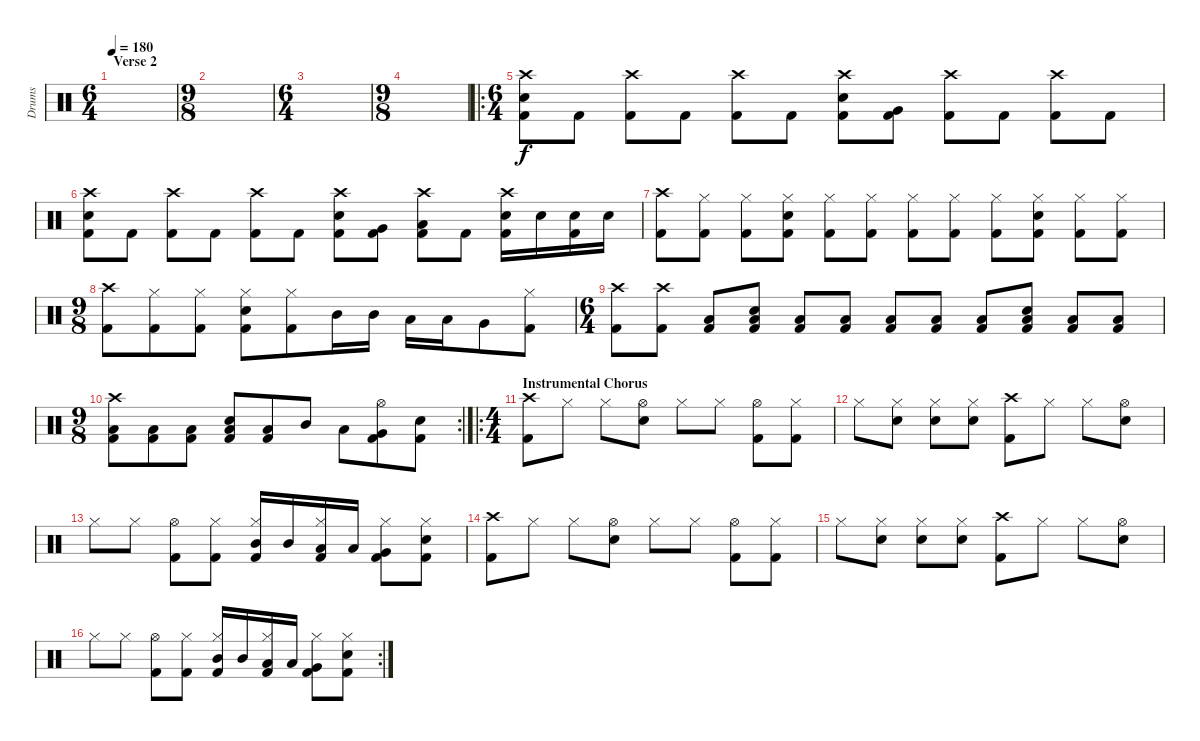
\track ("Drums" "Drums") {instrument percussion}
\staff {score}
\articulation defaults
\ts (6 4)
\section ("" "Verse 2")
\tempo 180
\clef neutral
\ks c
|
\ts (9 8)
|
\ts (6 4)
|
\ts (9 8)
|
\ro
\ts (6 4)
("Crash high (hit)" "Snare (hit) 2" "Kick (hit) 2").8 "Kick (hit) 2".8 ("Crash high (hit)" "Kick (hit) 2").8 "Kick (hit) 2".8 ("Crash high (hit)" "Kick (hit) 2").8 "Kick (hit) 2".8 ("Crash high (hit)" "Snare (hit) 2" "Kick (hit) 2").8 ("Very Low Tom (hit)" "Kick (hit) 2").8 ("Crash high (hit)" "Kick (hit) 2").8 "Kick (hit) 2".8 ("Crash high (hit)" "Kick (hit) 2").8 "Kick (hit) 2".8 |
("Crash high (hit)" "Snare (hit) 2" "Kick (hit) 2").8 "Kick (hit) 2".8 ("Crash high (hit)" "Kick (hit) 2").8 "Kick (hit) 2".8 ("Crash high (hit)" "Kick (hit) 2").8 "Kick (hit) 2".8 ("Crash high (hit)" "Snare (hit) 2" "Kick (hit) 2").8 ("Very Low Tom (hit)" "Kick (hit) 2").8 ("Crash high (hit)" "Low Floor Tom (hit)" "Kick (hit) 2").8 "Kick (hit) 2".8 ("Crash high (hit)" "Snare (hit) 2" "Kick (hit) 2").16 "Snare (hit) 2".16 ("Snare (hit) 2" "Kick (hit) 2").16 "Snare (hit) 2".16 |
("Crash high (hit)" "Kick (hit) 2").8 ("Hi-Hat (closed)" "Kick (hit) 2").8 ("Hi-Hat (closed)" "Kick (hit) 2").8 ("Hi-Hat (closed)" "Snare (hit) 2" "Kick (hit) 2").8 ("Hi-Hat (closed)" "Kick (hit) 2").8 ("Hi-Hat (closed)" "Kick (hit) 2").8 ("Hi-Hat (closed)" "Kick (hit) 2").8 ("Hi-Hat (closed)" "Kick (hit) 2").8 ("Hi-Hat (closed)" "Kick (hit) 2").8 ("Hi-Hat (closed)" "Snare (hit) 2" "Kick (hit) 2").8 ("Hi-Hat (closed)" "Kick (hit) 2").8 ("Hi-Hat (closed)" "Kick (hit) 2").8 |
\ts (9 8)
("Crash high (hit)" "Kick (hit) 2").8 ("Hi-Hat (closed)" "Kick (hit) 2").8 ("Hi-Hat (closed)" "Kick (hit) 2").8 ("Hi-Hat (closed)" "Snare (hit) 2" "Kick (hit) 2").8 ("Hi-Hat (closed)" "Kick (hit) 2").8 "Mid Tom (hit)".16 "Mid Tom (hit)".16 "Low Tom (hit)".16 "Low Tom (hit)".16 "Very Low Tom (hit)".8 ("Hi-Hat (closed)" "Kick (hit) 2").8 |
\ts (6 4)
("Crash high (hit)" "Kick (hit) 2").8 ("Crash high (hit)" "Kick (hit) 2").8 ("Low Floor Tom (hit)" "Kick (hit) 2").8 ("Snare (hit) 2" "Low Floor Tom (hit)" "Kick (hit) 2").8 ("Low Floor Tom (hit)" "Kick (hit) 2").8 ("Low Floor Tom (hit)" "Kick (hit) 2").8 ("Low Floor Tom (hit)" "Kick (hit) 2").8 ("Low Floor Tom (hit)" "Kick (hit) 2").8 ("Low Floor Tom (hit)" "Kick (hit) 2").8 ("Snare (hit) 2" "Low Floor Tom (hit)" "Kick (hit) 2").8 ("Low Floor Tom (hit)" "Kick (hit) 2").8 ("Low Floor Tom (hit)" "Kick (hit) 2").8 |
\rc 2
\ts (9 8)
("Crash high (hit)" "Low Floor Tom (hit)" "Kick (hit) 2").8 ("Low Floor Tom (hit)" "Kick (hit) 2").8 ("Low Floor Tom (hit)" "Kick (hit) 2").8 ("Snare (hit) 2" "Low Floor Tom (hit)" "Kick (hit) 2").8 ("Low Floor Tom (hit)" "Kick (hit) 2").8 "Mid Tom (hit)".8 "Low Tom (hit)".8 ("Hi-Hat (open)" "Very Low Tom (hit)" "Kick (hit) 2").8 ("Snare (hit) 2" "Kick (hit) 2").8 |
\ro
\ts (4 4)
\section ("" "Instrumental Chorus")
("Crash high (hit)" "Kick (hit) 2").8 "Hi-Hat (closed)".8 "Hi-Hat (closed)".8 ("Hi-Hat (open)" "Snare (hit) 2").8 "Hi-Hat (closed)".8 "Hi-Hat (closed)".8 ("Hi-Hat (open)" "Kick (hit) 2").8 ("Hi-Hat (closed)" "Kick (hit) 2").8 |
"Hi-Hat (closed)".8 ("Hi-Hat (closed)" "Snare (hit) 2").8 ("Hi-Hat (closed)" "Snare (hit) 2").8 ("Hi-Hat (closed)" "Snare (hit) 2").8 ("Crash high (hit)" "Kick (hit) 2").8 "Hi-Hat (closed)".8 "Hi-Hat (closed)".8 ("Hi-Hat (open)" "Snare (hit) 2").8 |
"Hi-Hat (closed)".8 "Hi-Hat (closed)".8 ("Hi-Hat (open)" "Kick (hit) 2").8 ("Hi-Hat (closed)" "Kick (hit) 2").8 ("Hi-Hat (closed)" "Mid Tom (hit)" "Kick (hit) 2").16 "Mid Tom (hit)".16 ("Hi-Hat (closed)" "Low Tom (hit)" "Kick (hit) 2").16 "Low Tom (hit)".16 ("Hi-Hat (closed)" "Very Low Tom (hit)" "Kick (hit) 2").8 ("Hi-Hat (closed)" "Snare (hit) 2" "Kick (hit) 2").8 |
("Crash high (hit)" "Kick (hit) 2").8 "Hi-Hat (closed)".8 "Hi-Hat (closed)".8 ("Hi-Hat (open)" "Snare (hit) 2").8 "Hi-Hat (closed)".8 "Hi-Hat (closed)".8 ("Hi-Hat (open)" "Kick (hit) 2").8 ("Hi-Hat (closed)" "Kick (hit) 2").8 |
"Hi-Hat (closed)".8 ("Hi-Hat (closed)" "Snare (hit) 2").8 ("Hi-Hat (closed)" "Snare (hit) 2").8 ("Hi-Hat (closed)" "Snare (hit) 2").8 ("Crash high (hit)" "Kick (hit) 2").8 "Hi-Hat (closed)".8 "Hi-Hat (closed)".8 ("Hi-Hat (open)" "Snare (hit) 2").8 |
\rc 2 "Hi-Hat (closed)".8 "Hi-Hat (closed)".8
("Hi-Hat (open)" "Kick (hit) 2").8 ("Hi-Hat (closed)" "Kick (hit) 2").8 ("Hi-Hat (closed)" "Mid Tom (hit)" "Kick (hit) 2").16 "Mid Tom (hit)".16 ("Hi-Hat (closed)" "Low Tom (hit)" "Kick (hit) 2").16 "Low Tom (hit)".16 ("Hi-Hat (closed)" "Very Low Tom (hit)" "Kick (hit) 2").8 ("Hi-Hat (closed)" "Snare (hit) 2" "Kick (hit) 2").8
